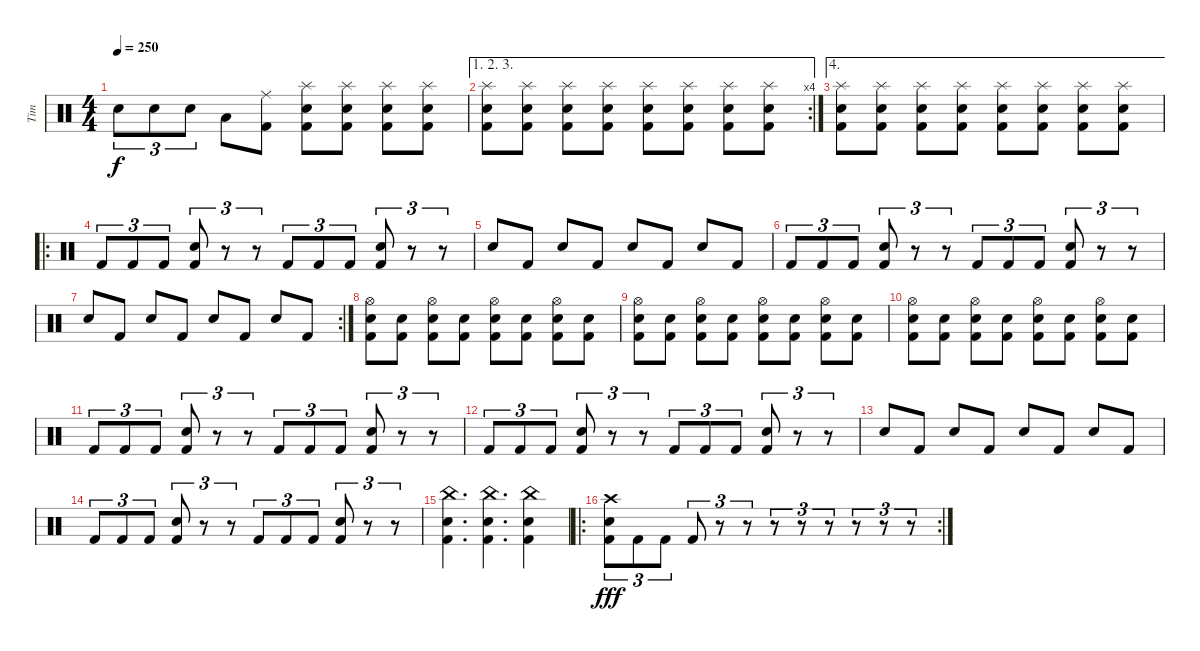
\track ("Tim" "Tim") {instrument percussion}
\staff {score}
\articulation defaults
\ts (4 4)
\tempo 250
\clef neutral
\ks c "Electric Snare (hit)".8{tu (3 2) dy f} "Electric Snare (hit)".8{tu (3 2)} "Electric Snare (hit)".8{tu (3 2)} "Low Tom (hit)".8
("Ride (middle)" "Kick (hit) 2").8 ("Splash (hit)" "Electric Snare (hit)" "Kick (hit) 2").8 ("Splash (hit)" "Electric Snare (hit)" "Kick (hit) 2").8 ("Splash (hit)" "Electric Snare (hit)" "Kick (hit) 2").8 ("Splash (hit)" "Electric Snare (hit)" "Kick (hit) 2").8 |
\ae (1 2 3)
\rc 4
("Splash (hit)" "Electric Snare (hit)" "Kick (hit) 2").8 ("Splash (hit)" "Electric Snare (hit)" "Kick (hit) 2").8 ("Splash (hit)" "Electric Snare (hit)" "Kick (hit) 2").8 ("Splash (hit)" "Electric Snare (hit)" "Kick (hit) 2").8 ("Splash (hit)" "Electric Snare (hit)" "Kick (hit) 2").8 ("Splash (hit)" "Electric Snare (hit)" "Kick (hit) 2").8 ("Splash (hit)" "Electric Snare (hit)" "Kick (hit) 2").8 ("Splash (hit)" "Electric Snare (hit)" "Kick (hit) 2").8 |
\ae 4
("Splash (hit)" "Electric Snare (hit)" "Kick (hit) 2").8 ("Splash (hit)" "Electric Snare (hit)" "Kick (hit) 2").8 ("Splash (hit)" "Electric Snare (hit)" "Kick (hit) 2").8 ("Splash (hit)" "Electric Snare (hit)" "Kick (hit) 2").8 ("Splash (hit)" "Electric Snare (hit)" "Kick (hit) 2").8 ("Splash (hit)" "Electric Snare (hit)" "Kick (hit) 2").8 ("Splash (hit)" "Electric Snare (hit)" "Kick (hit) 2").8 ("Splash (hit)" "Electric Snare (hit)" "Kick (hit) 2").8 |
\ro "Kick (hit) 2".8{tu (3 2)} "Kick (hit) 2".8{tu (3 2)} "Kick (hit) 2".8{tu (3 2)}
("Electric Snare (hit)" "Kick (hit) 2").8{tu (3 2)} r.8{tu (3 2)} r.8{tu (3 2)} "Kick (hit) 2".8{tu (3 2)} "Kick (hit) 2".8{tu (3 2)} "Kick (hit) 2".8{tu (3 2)} ("Electric Snare (hit)" "Kick (hit) 2").8{tu (3 2)} r.8{tu (3 2)} r.8{tu (3 2)} |
"Electric Snare (hit)".8 "Kick (hit) 2".8 "Electric Snare (hit)".8 "Kick (hit) 2".8 "Electric Snare (hit)".8 "Kick (hit) 2".8 "Electric Snare (hit)".8 "Kick (hit) 2".8 |
"Kick (hit) 2".8{tu (3 2)} "Kick (hit) 2".8{tu (3 2)} "Kick (hit) 2".8{tu (3 2)} ("Electric Snare (hit)" "Kick (hit) 2").8{tu (3 2)} r.8{tu (3 2)} r.8{tu (3 2)} "Kick (hit) 2".8{tu (3 2)} "Kick (hit) 2".8{tu (3 2)} "Kick (hit) 2".8{tu (3 2)} ("Electric Snare (hit)" "Kick (hit) 2").8{tu (3 2)} r.8{tu (3 2)} r.8{tu (3 2)} |
\rc 2 "Electric Snare (hit)".8 "Kick (hit) 2".8 "Electric Snare (hit)".8 "Kick (hit) 2".8 "Electric Snare (hit)".8 "Kick (hit) 2".8 "Electric Snare (hit)".8 "Kick (hit) 2".8
|
("Hi-Hat (open)" "Electric Snare (hit)" "Kick (hit) 2").8 ("Electric Snare (hit)" "Kick (hit) 2").8 ("Hi-Hat (open)" "Electric Snare (hit)" "Kick (hit) 2").8 ("Electric Snare (hit)" "Kick (hit) 2").8 ("Hi-Hat (open)" "Electric Snare (hit)" "Kick (hit) 2").8 ("Electric Snare (hit)" "Kick (hit) 2").8 ("Hi-Hat (open)" "Electric Snare (hit)" "Kick (hit) 2").8 ("Electric Snare (hit)" "Kick (hit) 2").8 |
("Hi-Hat (open)" "Electric Snare (hit)" "Kick (hit) 2").8 ("Electric Snare (hit)" "Kick (hit) 2").8 ("Hi-Hat (open)" "Electric Snare (hit)" "Kick (hit) 2").8 ("Electric Snare (hit)" "Kick (hit) 2").8 ("Hi-Hat (open)" "Electric Snare (hit)" "Kick (hit) 2").8 ("Electric Snare (hit)" "Kick (hit) 2").8 ("Hi-Hat (open)" "Electric Snare (hit)" "Kick (hit) 2").8 ("Electric Snare (hit)" "Kick (hit) 2").8 |
("Hi-Hat (open)" "Electric Snare (hit)" "Kick (hit) 2").8 ("Electric Snare (hit)" "Kick (hit) 2").8 ("Hi-Hat (open)" "Electric Snare (hit)" "Kick (hit) 2").8 ("Electric Snare (hit)" "Kick (hit) 2").8 ("Hi-Hat (open)" "Electric Snare (hit)" "Kick (hit) 2").8 ("Electric Snare (hit)" "Kick (hit) 2").8 ("Hi-Hat (open)" "Electric Snare (hit)" "Kick (hit) 2").8 ("Electric Snare (hit)" "Kick (hit) 2").8 |
"Kick (hit) 2".8{tu (3 2)} "Kick (hit) 2".8{tu (3 2)} "Kick (hit) 2".8{tu (3 2)} ("Electric Snare (hit)" "Kick (hit) 2").8{tu (3 2)} r.8{tu (3 2)} r.8{tu (3 2)} "Kick (hit) 2".8{tu (3 2)} "Kick (hit) 2".8{tu (3 2)} "Kick (hit) 2".8{tu (3 2)} ("Electric Snare (hit)" "Kick (hit) 2").8{tu (3 2)} r.8{tu (3 2)} r.8{tu (3 2)} |
"Kick (hit) 2".8{tu (3 2)} "Kick (hit) 2".8{tu (3 2)} "Kick (hit) 2".8{tu (3 2)} ("Electric Snare (hit)" "Kick (hit) 2").8{tu (3 2)} r.8{tu (3 2)} r.8{tu (3 2)} "Kick (hit) 2".8{tu (3 2)} "Kick (hit) 2".8{tu (3 2)} "Kick (hit) 2".8{tu (3 2)} ("Electric Snare (hit)" "Kick (hit) 2").8{tu (3 2)} r.8{tu (3 2)} r.8{tu (3 2)} |
"Electric Snare (hit)".8 "Kick (hit) 2".8 "Electric Snare (hit)".8 "Kick (hit) 2".8 "Electric Snare (hit)".8 "Kick (hit) 2".8 "Electric Snare (hit)".8 "Kick (hit) 2".8 |
"Kick (hit) 2".8{tu (3 2)} "Kick (hit) 2".8{tu (3 2)} "Kick (hit) 2".8{tu (3 2)} ("Electric Snare (hit)" "Kick (hit) 2").8{tu (3 2)} r.8{tu (3 2)} r.8{tu (3 2)} "Kick (hit) 2".8{tu (3 2)} "Kick (hit) 2".8{tu (3 2)} "Kick (hit) 2".8{tu (3 2)} ("Electric Snare (hit)" "Kick (hit) 2").8{tu (3 2)} r.8{tu (3 2)} r.8{tu (3 2)} |
("China (hit)" "Electric Snare (hit)" "Kick (hit) 2").4{d} ("China (hit)" "Electric Snare (hit)" "Kick (hit) 2").4{d} ("China (hit)" "Electric Snare (hit)" "Kick (hit) 2").4 |
\ro
\rc 2
("Crash high (hit)" "Electric Snare (hit)" "Kick (hit) 2").8{tu (3 2) dy fff} "Kick (hit) 2".8{tu (3 2)} "Kick (hit) 2".8{tu (3 2)} "Kick (hit) 2".8{tu (3 2)} r.8{tu (3 2)} r.8{tu (3 2)} r.8{tu (3 2)} r.8{tu (3 2)} r.8{tu (3 2)} r.8{tu (3 2)} r.8{tu (3 2)} r.8{tu (3 2)}
